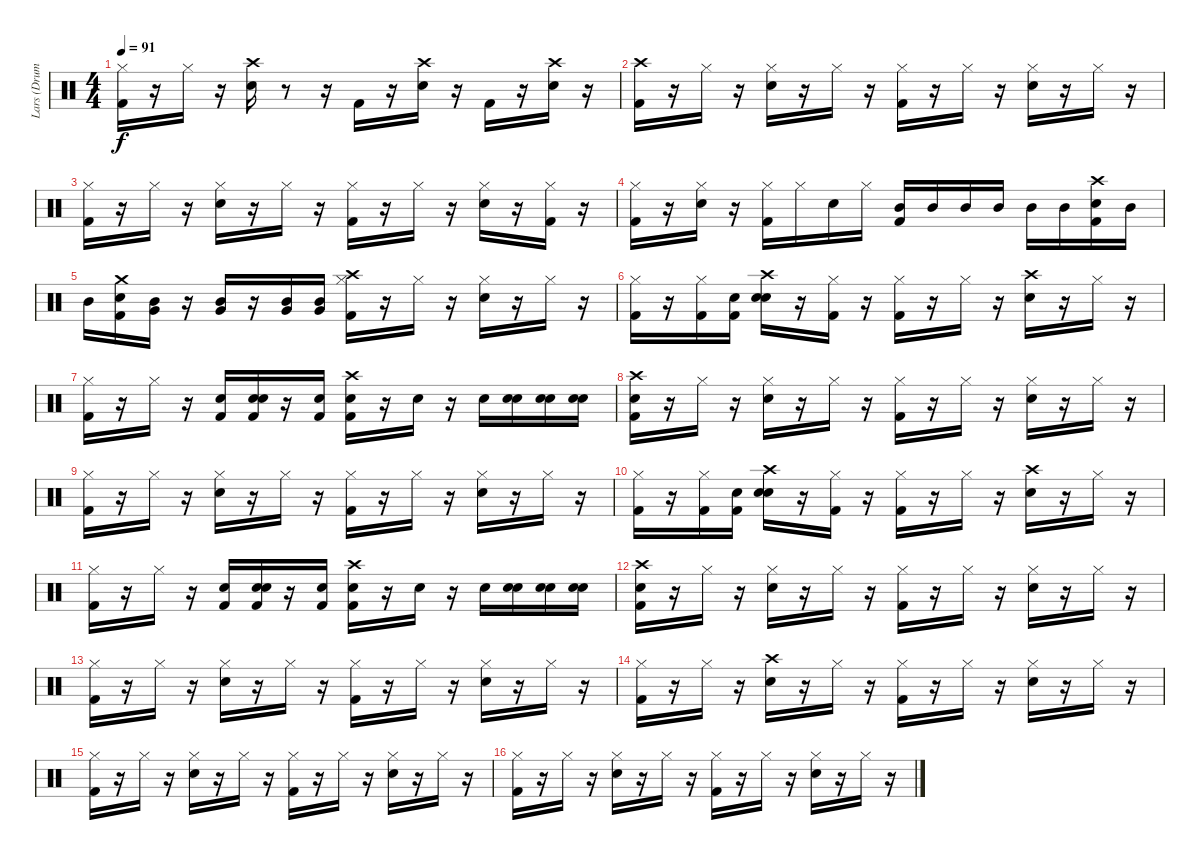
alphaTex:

\track ("Lars (Drums)" "Lars (Drum") {instrument percussion}
\staff {score}
\articulation defaults
\ts (4 4)
\tempo 91
\clef neutral
\ks c
("Kick (hit) 2" "Hi-Hat (closed)").16{dy f} r.16 "Hi-Hat (closed)".16 r.16 ("Snare (hit) 2" "Crash high (hit)").16 r.8 r.16 "Kick (hit) 2".16 r.16 ("Snare (hit) 2" "Crash high (hit)").16 r.16 "Kick (hit) 2".16 r.16 ("Snare (hit) 2" "Crash high (hit)").16 r.16 |
("Kick (hit) 2" "Crash high (hit)").16 r.16 "Hi-Hat (closed)".16 r.16 ("Snare (hit) 2" "Hi-Hat (closed)").16 r.16 "Hi-Hat (closed)".16 r.16 ("Kick (hit) 2" "Hi-Hat (closed)").16 r.16 "Hi-Hat (closed)".16 r.16 ("Snare (hit) 2" "Hi-Hat (closed)").16 r.16 "Hi-Hat (closed)".16 r.16 |
("Kick (hit) 2" "Hi-Hat (closed)").16 r.16 "Hi-Hat (closed)".16 r.16 ("Snare (hit) 2" "Hi-Hat (closed)").16 r.16 "Hi-Hat (closed)".16 r.16 ("Kick (hit) 2" "Hi-Hat (closed)").16 r.16 "Hi-Hat (closed)".16 r.16 ("Snare (hit) 2" "Hi-Hat (closed)").16 r.16 ("Kick (hit) 2" "Hi-Hat (closed)").16 r.16 |
("Kick (hit) 2" "Hi-Hat (closed)").16 r.16 ("Snare (hit) 2" "Hi-Hat (closed)").16 r.16 ("Kick (hit) 2" "Hi-Hat (closed)").16 "Hi-Hat (closed)".16 "Snare (hit) 2".16 "Hi-Hat (closed)".16 ("Kick (hit) 2" "Mid Tom (hit)").16 "Mid Tom (hit)".16 "Mid Tom (hit)".16 "Mid Tom (hit)".16 "Mid Tom (hit)".16 "Mid Tom (hit)".16 ("Kick (hit) 2" "Snare (hit) 2" "Crash high (hit)").16 "Mid Tom (hit)".16 |
"Mid Tom (hit)".16 ("Kick (hit) 2" "Snare (hit) 2" "Crash medium (hit)").16 ("Very Low Tom (hit)" "Mid Tom (hit)").16 r.16 ("Very Low Tom (hit)" "Mid Tom (hit)").16 r.16 ("Very Low Tom (hit)" "Mid Tom (hit)").16 ("Very Low Tom (hit)" "Mid Tom (hit)").16 ("Kick (hit) 2" "Hi-Hat (closed)" "Crash high (hit)").16 r.16 "Hi-Hat (closed)".16 r.16 ("Snare (hit) 2" "Hi-Hat (closed)").16 r.16 "Hi-Hat (closed)".16 r.16 |
("Kick (hit) 2" "Hi-Hat (closed)").16 r.16 ("Kick (hit) 2" "Hi-Hat (closed)").16 ("Snare (hit)" "Kick (hit) 2").16 ("Snare (hit)" "Snare (hit) 2" "Crash high (hit)").16 r.16 ("Kick (hit) 2" "Hi-Hat (closed)").16 r.16 ("Kick (hit) 2" "Hi-Hat (closed)").16 r.16 "Hi-Hat (closed)".16 r.16 ("Snare (hit) 2" "Crash high (hit)").16 r.16 "Hi-Hat (closed)".16 r.16 |
("Kick (hit) 2" "Hi-Hat (closed)").16 r.16 "Hi-Hat (closed)".16 r.16 ("Kick (hit) 2" "Snare (hit) 2").16 ("Snare (hit)" "Kick (hit) 2" "Snare (hit) 2").16 r.16 ("Kick (hit) 2" "Snare (hit) 2").16 ("Snare (hit)" "Kick (hit) 2" "Crash high (hit)").16 r.16 "Snare (hit) 2".16 r.16 "Snare (hit) 2".16 ("Snare (hit)" "Snare (hit) 2").16 ("Snare (hit)" "Snare (hit) 2").16 ("Snare (hit)" "Snare (hit) 2").16 |
("Snare (hit)" "Kick (hit) 2" "Crash high (hit)").16 r.16 "Hi-Hat (closed)".16 r.16 ("Snare (hit) 2" "Hi-Hat (closed)").16 r.16 "Hi-Hat (closed)".16 r.16 ("Kick (hit) 2" "Hi-Hat (closed)").16 r.16 "Hi-Hat (closed)".16 r.16 ("Snare (hit) 2" "Hi-Hat (closed)").16 r.16 "Hi-Hat (closed)".16 r.16 |
("Kick (hit) 2" "Hi-Hat (closed)").16 r.16 "Hi-Hat (closed)".16 r.16 ("Snare (hit) 2" "Hi-Hat (closed)").16 r.16 "Hi-Hat (closed)".16 r.16 ("Kick (hit) 2" "Hi-Hat (closed)").16 r.16 "Hi-Hat (closed)".16 r.16 ("Snare (hit) 2" "Hi-Hat (closed)").16 r.16 "Hi-Hat (closed)".16 r.16 |
("Kick (hit) 2" "Hi-Hat (closed)").16 r.16 ("Kick (hit) 2" "Hi-Hat (closed)").16 ("Snare (hit)" "Kick (hit) 2").16 ("Snare (hit)" "Snare (hit) 2" "Crash high (hit)").16 r.16 ("Kick (hit) 2" "Hi-Hat (closed)").16 r.16 ("Kick (hit) 2" "Hi-Hat (closed)").16 r.16 "Hi-Hat (closed)".16 r.16 ("Snare (hit) 2" "Crash high (hit)").16 r.16 "Hi-Hat (closed)".16 r.16 |
("Kick (hit) 2" "Hi-Hat (closed)").16 r.16 "Hi-Hat (closed)".16 r.16 ("Kick (hit) 2" "Snare (hit) 2").16 ("Snare (hit)" "Kick (hit) 2" "Snare (hit) 2").16 r.16 ("Kick (hit) 2" "Snare (hit) 2").16 ("Snare (hit)" "Kick (hit) 2" "Crash high (hit)").16 r.16 "Snare (hit) 2".16 r.16 "Snare (hit) 2".16 ("Snare (hit)" "Snare (hit) 2").16 ("Snare (hit)" "Snare (hit) 2").16 ("Snare (hit)" "Snare (hit) 2").16 |
("Snare (hit)" "Kick (hit) 2" "Crash high (hit)").16 r.16 "Hi-Hat (closed)".16 r.16 ("Snare (hit) 2" "Hi-Hat (closed)").16 r.16 "Hi-Hat (closed)".16 r.16 ("Kick (hit) 2" "Hi-Hat (closed)").16 r.16 "Hi-Hat (closed)".16 r.16 ("Snare (hit) 2" "Hi-Hat (closed)").16 r.16 "Hi-Hat (closed)".16 r.16 |
("Kick (hit) 2" "Hi-Hat (closed)").16 r.16 "Hi-Hat (closed)".16 r.16 ("Snare (hit) 2" "Hi-Hat (closed)").16 r.16 "Hi-Hat (closed)".16 r.16 ("Kick (hit) 2" "Hi-Hat (closed)").16 r.16 "Hi-Hat (closed)".16 r.16 ("Snare (hit) 2" "Hi-Hat (closed)").16 r.16 "Hi-Hat (closed)".16 r.16 |
("Kick (hit) 2" "Hi-Hat (closed)").16 r.16 "Hi-Hat (closed)".16 r.16 ("Snare (hit) 2" "Crash high (hit)").16 r.16 "Hi-Hat (closed)".16 r.16 ("Kick (hit) 2" "Hi-Hat (closed)").16 r.16 "Hi-Hat (closed)".16 r.16 ("Snare (hit) 2" "Hi-Hat (closed)").16 r.16 "Hi-Hat (closed)".16 r.16 |
("Kick (hit) 2" "Hi-Hat (closed)").16 r.16 "Hi-Hat (closed)".16 r.16 ("Snare (hit) 2" "Hi-Hat (closed)").16 r.16 "Hi-Hat (closed)".16 r.16 ("Kick (hit) 2" "Hi-Hat (closed)").16 r.16 "Hi-Hat (closed)".16 r.16 ("Snare (hit) 2" "Hi-Hat (closed)").16 r.16 "Hi-Hat (closed)".16 r.16 |
("Kick (hit) 2" "Hi-Hat (closed)").16 r.16 "Hi-Hat (closed)".16 r.16 ("Snare (hit) 2" "Hi-Hat (closed)").16 r.16 "Hi-Hat (closed)".16 r.16 ("Kick (hit) 2" "Hi-Hat (closed)").16 r.16 "Hi-Hat (closed)".16 r.16 ("Snare (hit) 2" "Hi-Hat (closed)").16 r.16 "Hi-Hat (closed)".16 r.16
